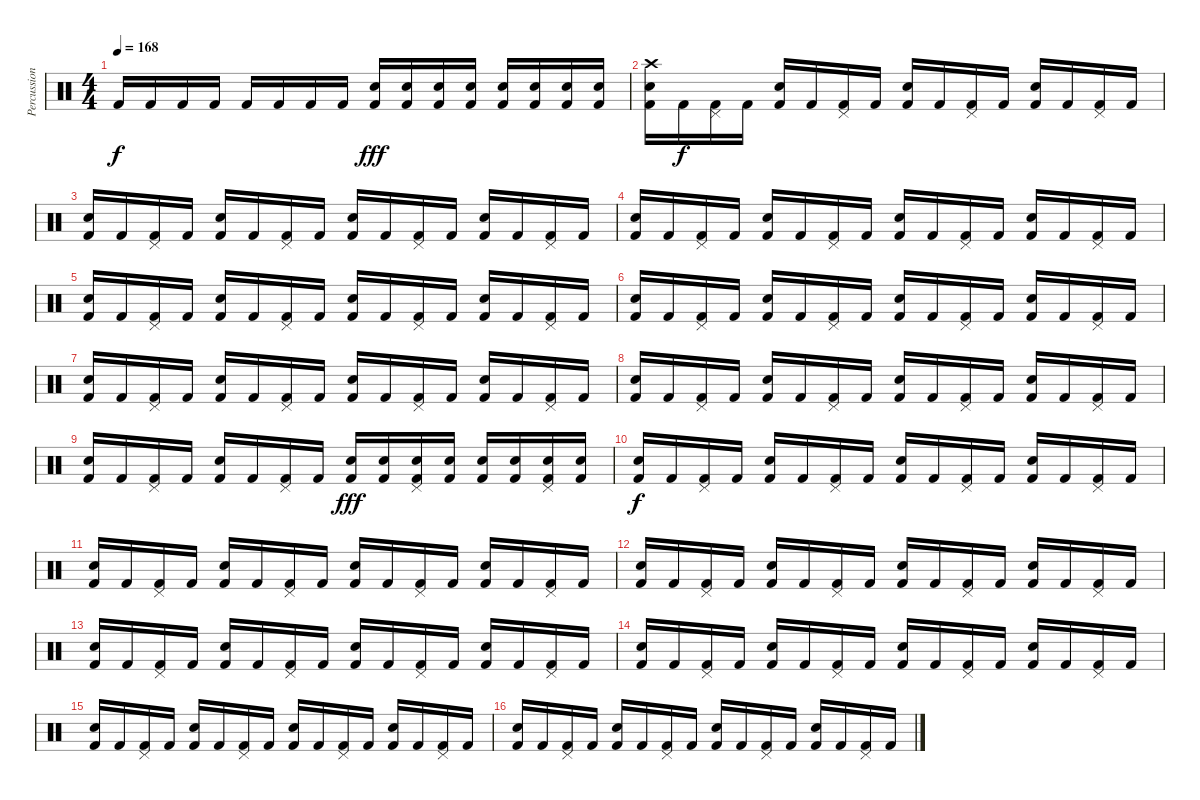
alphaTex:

\track ("Percussion" "Percussion") {instrument percussion}
\staff {score}
\articulation defaults
\ts (4 4)
\tempo 168
\clef neutral
\ks c "Kick (hit) 2".16{dy f} "Kick (hit) 2".16 "Kick (hit) 2".16 "Kick (hit) 2".16 "Kick (hit) 2".16 "Kick (hit) 2".16 "Kick (hit) 2".16 "Kick (hit) 2".16
("Electric Snare (hit)" "Kick (hit) 2").16{dy fff} ("Electric Snare (hit)" "Kick (hit) 2").16 ("Electric Snare (hit)" "Kick (hit) 2").16 ("Electric Snare (hit)" "Kick (hit) 2").16 ("Electric Snare (hit)" "Kick (hit) 2").16 ("Electric Snare (hit)" "Kick (hit) 2").16 ("Electric Snare (hit)" "Kick (hit) 2").16 ("Electric Snare (hit)" "Kick (hit) 2").16 |
("Crash high (hit)" "Electric Snare (hit)" "Kick (hit) 2").16 "Kick (hit) 2".16{dy f} ("Pedal Hi-Hat (hit)" "Kick (hit) 2").16 "Kick (hit) 2".16 ("Electric Snare (hit)" "Kick (hit) 2").16 "Kick (hit) 2".16 ("Pedal Hi-Hat (hit)" "Kick (hit) 2").16 "Kick (hit) 2".16 ("Electric Snare (hit)" "Kick (hit) 2").16 "Kick (hit) 2".16 ("Pedal Hi-Hat (hit)" "Kick (hit) 2").16 "Kick (hit) 2".16 ("Electric Snare (hit)" "Kick (hit) 2").16 "Kick (hit) 2".16 ("Pedal Hi-Hat (hit)" "Kick (hit) 2").16 "Kick (hit) 2".16 |
("Electric Snare (hit)" "Kick (hit) 2").16 "Kick (hit) 2".16 ("Pedal Hi-Hat (hit)" "Kick (hit) 2").16 "Kick (hit) 2".16 ("Electric Snare (hit)" "Kick (hit) 2").16 "Kick (hit) 2".16 ("Pedal Hi-Hat (hit)" "Kick (hit) 2").16 "Kick (hit) 2".16 ("Electric Snare (hit)" "Kick (hit) 2").16 "Kick (hit) 2".16 ("Pedal Hi-Hat (hit)" "Kick (hit) 2").16 "Kick (hit) 2".16 ("Electric Snare (hit)" "Kick (hit) 2").16 "Kick (hit) 2".16 ("Pedal Hi-Hat (hit)" "Kick (hit) 2").16 "Kick (hit) 2".16 |
("Electric Snare (hit)" "Kick (hit) 2").16 "Kick (hit) 2".16 ("Pedal Hi-Hat (hit)" "Kick (hit) 2").16 "Kick (hit) 2".16 ("Electric Snare (hit)" "Kick (hit) 2").16 "Kick (hit) 2".16 ("Pedal Hi-Hat (hit)" "Kick (hit) 2").16 "Kick (hit) 2".16 ("Electric Snare (hit)" "Kick (hit) 2").16 "Kick (hit) 2".16 ("Pedal Hi-Hat (hit)" "Kick (hit) 2").16 "Kick (hit) 2".16 ("Electric Snare (hit)" "Kick (hit) 2").16 "Kick (hit) 2".16 ("Pedal Hi-Hat (hit)" "Kick (hit) 2").16 "Kick (hit) 2".16 |
("Electric Snare (hit)" "Kick (hit) 2").16 "Kick (hit) 2".16 ("Pedal Hi-Hat (hit)" "Kick (hit) 2").16 "Kick (hit) 2".16 ("Electric Snare (hit)" "Kick (hit) 2").16 "Kick (hit) 2".16 ("Pedal Hi-Hat (hit)" "Kick (hit) 2").16 "Kick (hit) 2".16 ("Electric Snare (hit)" "Kick (hit) 2").16 "Kick (hit) 2".16 ("Pedal Hi-Hat (hit)" "Kick (hit) 2").16 "Kick (hit) 2".16 ("Electric Snare (hit)" "Kick (hit) 2").16 "Kick (hit) 2".16 ("Pedal Hi-Hat (hit)" "Kick (hit) 2").16 "Kick (hit) 2".16 |
("Electric Snare (hit)" "Kick (hit) 2").16 "Kick (hit) 2".16 ("Pedal Hi-Hat (hit)" "Kick (hit) 2").16 "Kick (hit) 2".16 ("Electric Snare (hit)" "Kick (hit) 2").16 "Kick (hit) 2".16 ("Pedal Hi-Hat (hit)" "Kick (hit) 2").16 "Kick (hit) 2".16 ("Electric Snare (hit)" "Kick (hit) 2").16 "Kick (hit) 2".16 ("Pedal Hi-Hat (hit)" "Kick (hit) 2").16 "Kick (hit) 2".16 ("Electric Snare (hit)" "Kick (hit) 2").16 "Kick (hit) 2".16 ("Pedal Hi-Hat (hit)" "Kick (hit) 2").16 "Kick (hit) 2".16 |
("Electric Snare (hit)" "Kick (hit) 2").16 "Kick (hit) 2".16 ("Pedal Hi-Hat (hit)" "Kick (hit) 2").16 "Kick (hit) 2".16 ("Electric Snare (hit)" "Kick (hit) 2").16 "Kick (hit) 2".16 ("Pedal Hi-Hat (hit)" "Kick (hit) 2").16 "Kick (hit) 2".16 ("Electric Snare (hit)" "Kick (hit) 2").16 "Kick (hit) 2".16 ("Pedal Hi-Hat (hit)" "Kick (hit) 2").16 "Kick (hit) 2".16 ("Electric Snare (hit)" "Kick (hit) 2").16 "Kick (hit) 2".16 ("Pedal Hi-Hat (hit)" "Kick (hit) 2").16 "Kick (hit) 2".16 |
("Electric Snare (hit)" "Kick (hit) 2").16 "Kick (hit) 2".16 ("Pedal Hi-Hat (hit)" "Kick (hit) 2").16 "Kick (hit) 2".16 ("Electric Snare (hit)" "Kick (hit) 2").16 "Kick (hit) 2".16 ("Pedal Hi-Hat (hit)" "Kick (hit) 2").16 "Kick (hit) 2".16 ("Electric Snare (hit)" "Kick (hit) 2").16 "Kick (hit) 2".16 ("Pedal Hi-Hat (hit)" "Kick (hit) 2").16 "Kick (hit) 2".16 ("Electric Snare (hit)" "Kick (hit) 2").16 "Kick (hit) 2".16 ("Pedal Hi-Hat (hit)" "Kick (hit) 2").16 "Kick (hit) 2".16 |
("Electric Snare (hit)" "Kick (hit) 2").16 "Kick (hit) 2".16 ("Pedal Hi-Hat (hit)" "Kick (hit) 2").16 "Kick (hit) 2".16 ("Electric Snare (hit)" "Kick (hit) 2").16 "Kick (hit) 2".16 ("Pedal Hi-Hat (hit)" "Kick (hit) 2").16 "Kick (hit) 2".16 ("Electric Snare (hit)" "Kick (hit) 2").16{dy fff} ("Electric Snare (hit)" "Kick (hit) 2").16 ("Pedal Hi-Hat (hit)" "Electric Snare (hit)" "Kick (hit) 2").16 ("Electric Snare (hit)" "Kick (hit) 2").16 ("Electric Snare (hit)" "Kick (hit) 2").16 ("Electric Snare (hit)" "Kick (hit) 2").16 ("Pedal Hi-Hat (hit)" "Electric Snare (hit)" "Kick (hit) 2").16 ("Electric Snare (hit)" "Kick (hit) 2").16 |
("Electric Snare (hit)" "Kick (hit) 2").16{dy f} "Kick (hit) 2".16 ("Pedal Hi-Hat (hit)" "Kick (hit) 2").16 "Kick (hit) 2".16 ("Electric Snare (hit)" "Kick (hit) 2").16 "Kick (hit) 2".16 ("Pedal Hi-Hat (hit)" "Kick (hit) 2").16 "Kick (hit) 2".16 ("Electric Snare (hit)" "Kick (hit) 2").16 "Kick (hit) 2".16 ("Pedal Hi-Hat (hit)" "Kick (hit) 2").16 "Kick (hit) 2".16 ("Electric Snare (hit)" "Kick (hit) 2").16 "Kick (hit) 2".16 ("Pedal Hi-Hat (hit)" "Kick (hit) 2").16 "Kick (hit) 2".16 |
("Electric Snare (hit)" "Kick (hit) 2").16 "Kick (hit) 2".16 ("Pedal Hi-Hat (hit)" "Kick (hit) 2").16 "Kick (hit) 2".16 ("Electric Snare (hit)" "Kick (hit) 2").16 "Kick (hit) 2".16 ("Pedal Hi-Hat (hit)" "Kick (hit) 2").16 "Kick (hit) 2".16 ("Electric Snare (hit)" "Kick (hit) 2").16 "Kick (hit) 2".16 ("Pedal Hi-Hat (hit)" "Kick (hit) 2").16 "Kick (hit) 2".16 ("Electric Snare (hit)" "Kick (hit) 2").16 "Kick (hit) 2".16 ("Pedal Hi-Hat (hit)" "Kick (hit) 2").16 "Kick (hit) 2".16 |
("Electric Snare (hit)" "Kick (hit) 2").16 "Kick (hit) 2".16 ("Pedal Hi-Hat (hit)" "Kick (hit) 2").16 "Kick (hit) 2".16 ("Electric Snare (hit)" "Kick (hit) 2").16 "Kick (hit) 2".16 ("Pedal Hi-Hat (hit)" "Kick (hit) 2").16 "Kick (hit) 2".16 ("Electric Snare (hit)" "Kick (hit) 2").16 "Kick (hit) 2".16 ("Pedal Hi-Hat (hit)" "Kick (hit) 2").16 "Kick (hit) 2".16 ("Electric Snare (hit)" "Kick (hit) 2").16 "Kick (hit) 2".16 ("Pedal Hi-Hat (hit)" "Kick (hit) 2").16 "Kick (hit) 2".16 |
("Electric Snare (hit)" "Kick (hit) 2").16 "Kick (hit) 2".16 ("Pedal Hi-Hat (hit)" "Kick (hit) 2").16 "Kick (hit) 2".16 ("Electric Snare (hit)" "Kick (hit) 2").16 "Kick (hit) 2".16 ("Pedal Hi-Hat (hit)" "Kick (hit) 2").16 "Kick (hit) 2".16 ("Electric Snare (hit)" "Kick (hit) 2").16 "Kick (hit) 2".16 ("Pedal Hi-Hat (hit)" "Kick (hit) 2").16 "Kick (hit) 2".16 ("Electric Snare (hit)" "Kick (hit) 2").16 "Kick (hit) 2".16 ("Pedal Hi-Hat (hit)" "Kick (hit) 2").16 "Kick (hit) 2".16 |
("Electric Snare (hit)" "Kick (hit) 2").16 "Kick (hit) 2".16 ("Pedal Hi-Hat (hit)" "Kick (hit) 2").16 "Kick (hit) 2".16 ("Electric Snare (hit)" "Kick (hit) 2").16 "Kick (hit) 2".16 ("Pedal Hi-Hat (hit)" "Kick (hit) 2").16 "Kick (hit) 2".16 ("Electric Snare (hit)" "Kick (hit) 2").16 "Kick (hit) 2".16 ("Pedal Hi-Hat (hit)" "Kick (hit) 2").16 "Kick (hit) 2".16 ("Electric Snare (hit)" "Kick (hit) 2").16 "Kick (hit) 2".16 ("Pedal Hi-Hat (hit)" "Kick (hit) 2").16 "Kick (hit) 2".16 |
("Electric Snare (hit)" "Kick (hit) 2").16 "Kick (hit) 2".16 ("Pedal Hi-Hat (hit)" "Kick (hit) 2").16 "Kick (hit) 2".16 ("Electric Snare (hit)" "Kick (hit) 2").16 "Kick (hit) 2".16 ("Pedal Hi-Hat (hit)" "Kick (hit) 2").16 "Kick (hit) 2".16 ("Electric Snare (hit)" "Kick (hit) 2").16 "Kick (hit) 2".16 ("Pedal Hi-Hat (hit)" "Kick (hit) 2").16 "Kick (hit) 2".16 ("Electric Snare (hit)" "Kick (hit) 2").16 "Kick (hit) 2".16 ("Pedal Hi-Hat (hit)" "Kick (hit) 2").16 "Kick (hit) 2".16 |
("Electric Snare (hit)" "Kick (hit) 2").16 "Kick (hit) 2".16 ("Pedal Hi-Hat (hit)" "Kick (hit) 2").16 "Kick (hit) 2".16 ("Electric Snare (hit)" "Kick (hit) 2").16 "Kick (hit) 2".16 ("Pedal Hi-Hat (hit)" "Kick (hit) 2").16 "Kick (hit) 2".16 ("Electric Snare (hit)" "Kick (hit) 2").16 "Kick (hit) 2".16 ("Pedal Hi-Hat (hit)" "Kick (hit) 2").16 "Kick (hit) 2".16 ("Electric Snare (hit)" "Kick (hit) 2").16 "Kick (hit) 2".16 ("Pedal Hi-Hat (hit)" "Kick (hit) 2").16 "Kick (hit) 2".16
